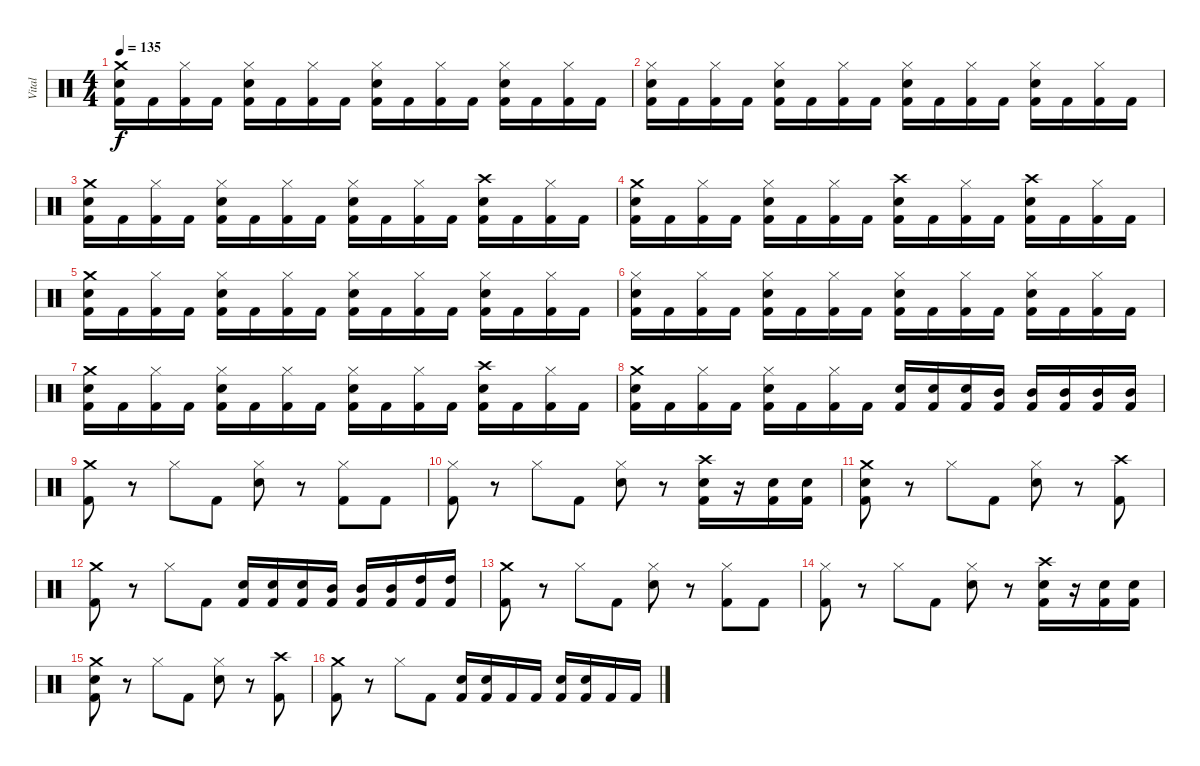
\track ("Vital" "Vital") {instrument percussion}
\staff {score}
\articulation defaults
\ts (4 4)
\tempo 135
\clef neutral
\ks c
("Crash medium (hit)" "Snare (hit) 2" "Kick (hit) 2").16{dy f} "Kick (hit) 2".16 ("Hi-Hat (closed)" "Kick (hit) 2").16 "Kick (hit) 2".16 ("Hi-Hat (closed)" "Snare (hit) 2" "Kick (hit) 2").16 "Kick (hit) 2".16 ("Hi-Hat (closed)" "Kick (hit) 2").16 "Kick (hit) 2".16 ("Hi-Hat (closed)" "Snare (hit) 2" "Kick (hit) 2").16 "Kick (hit) 2".16 ("Hi-Hat (closed)" "Kick (hit) 2").16 "Kick (hit) 2".16 ("Hi-Hat (closed)" "Snare (hit) 2" "Kick (hit) 2").16 "Kick (hit) 2".16 ("Hi-Hat (closed)" "Kick (hit) 2").16 "Kick (hit) 2".16 |
("Hi-Hat (closed)" "Snare (hit) 2" "Kick (hit) 2").16 "Kick (hit) 2".16 ("Hi-Hat (closed)" "Kick (hit) 2").16 "Kick (hit) 2".16 ("Hi-Hat (closed)" "Snare (hit) 2" "Kick (hit) 2").16 "Kick (hit) 2".16 ("Hi-Hat (closed)" "Kick (hit) 2").16 "Kick (hit) 2".16 ("Hi-Hat (closed)" "Snare (hit) 2" "Kick (hit) 2").16 "Kick (hit) 2".16 ("Hi-Hat (closed)" "Kick (hit) 2").16 "Kick (hit) 2".16 ("Hi-Hat (closed)" "Snare (hit) 2" "Kick (hit) 2").16 "Kick (hit) 2".16 ("Hi-Hat (closed)" "Kick (hit) 2").16 "Kick (hit) 2".16 |
("Crash medium (hit)" "Snare (hit) 2" "Kick (hit) 2").16 "Kick (hit) 2".16 ("Hi-Hat (closed)" "Kick (hit) 2").16 "Kick (hit) 2".16 ("Hi-Hat (closed)" "Snare (hit) 2" "Kick (hit) 2").16 "Kick (hit) 2".16 ("Hi-Hat (closed)" "Kick (hit) 2").16 "Kick (hit) 2".16 ("Hi-Hat (closed)" "Snare (hit) 2" "Kick (hit) 2").16 "Kick (hit) 2".16 ("Hi-Hat (closed)" "Kick (hit) 2").16 "Kick (hit) 2".16 ("Crash high (hit)" "Snare (hit) 2" "Kick (hit) 2").16 "Kick (hit) 2".16 ("Hi-Hat (closed)" "Kick (hit) 2").16 "Kick (hit) 2".16 |
("Crash medium (hit)" "Snare (hit) 2" "Kick (hit) 2").16 "Kick (hit) 2".16 ("Hi-Hat (closed)" "Kick (hit) 2").16 "Kick (hit) 2".16 ("Hi-Hat (closed)" "Snare (hit) 2" "Kick (hit) 2").16 "Kick (hit) 2".16 ("Hi-Hat (closed)" "Kick (hit) 2").16 "Kick (hit) 2".16 ("Crash high (hit)" "Snare (hit) 2" "Kick (hit) 2").16 "Kick (hit) 2".16 ("Hi-Hat (closed)" "Kick (hit) 2").16 "Kick (hit) 2".16 ("Crash high (hit)" "Snare (hit) 2" "Kick (hit) 2").16 "Kick (hit) 2".16 ("Hi-Hat (closed)" "Kick (hit) 2").16 "Kick (hit) 2".16 |
("Crash medium (hit)" "Snare (hit) 2" "Kick (hit) 2").16 "Kick (hit) 2".16 ("Hi-Hat (closed)" "Kick (hit) 2").16 "Kick (hit) 2".16 ("Hi-Hat (closed)" "Snare (hit) 2" "Kick (hit) 2").16 "Kick (hit) 2".16 ("Hi-Hat (closed)" "Kick (hit) 2").16 "Kick (hit) 2".16 ("Hi-Hat (closed)" "Snare (hit) 2" "Kick (hit) 2").16 "Kick (hit) 2".16 ("Hi-Hat (closed)" "Kick (hit) 2").16 "Kick (hit) 2".16 ("Hi-Hat (closed)" "Snare (hit) 2" "Kick (hit) 2").16 "Kick (hit) 2".16 ("Hi-Hat (closed)" "Kick (hit) 2").16 "Kick (hit) 2".16 |
("Hi-Hat (closed)" "Snare (hit) 2" "Kick (hit) 2").16 "Kick (hit) 2".16 ("Hi-Hat (closed)" "Kick (hit) 2").16 "Kick (hit) 2".16 ("Hi-Hat (closed)" "Snare (hit) 2" "Kick (hit) 2").16 "Kick (hit) 2".16 ("Hi-Hat (closed)" "Kick (hit) 2").16 "Kick (hit) 2".16 ("Hi-Hat (closed)" "Snare (hit) 2" "Kick (hit) 2").16 "Kick (hit) 2".16 ("Hi-Hat (closed)" "Kick (hit) 2").16 "Kick (hit) 2".16 ("Hi-Hat (closed)" "Snare (hit) 2" "Kick (hit) 2").16 "Kick (hit) 2".16 ("Hi-Hat (closed)" "Kick (hit) 2").16 "Kick (hit) 2".16 |
("Crash medium (hit)" "Snare (hit) 2" "Kick (hit) 2").16 "Kick (hit) 2".16 ("Hi-Hat (closed)" "Kick (hit) 2").16 "Kick (hit) 2".16 ("Hi-Hat (closed)" "Snare (hit) 2" "Kick (hit) 2").16 "Kick (hit) 2".16 ("Hi-Hat (closed)" "Kick (hit) 2").16 "Kick (hit) 2".16 ("Hi-Hat (closed)" "Snare (hit) 2" "Kick (hit) 2").16 "Kick (hit) 2".16 ("Hi-Hat (closed)" "Kick (hit) 2").16 "Kick (hit) 2".16 ("Crash high (hit)" "Snare (hit) 2" "Kick (hit) 2").16 "Kick (hit) 2".16 ("Hi-Hat (closed)" "Kick (hit) 2").16 "Kick (hit) 2".16 |
("Crash medium (hit)" "Snare (hit) 2" "Kick (hit) 2").16 "Kick (hit) 2".16 ("Hi-Hat (closed)" "Kick (hit) 2").16 "Kick (hit) 2".16 ("Hi-Hat (closed)" "Snare (hit) 2" "Kick (hit) 2").16 "Kick (hit) 2".16 ("Hi-Hat (closed)" "Kick (hit) 2").16 "Kick (hit) 2".16 ("Snare (hit) 2" "Kick (hit) 2").16 ("Snare (hit) 2" "Kick (hit) 2").16 ("Snare (hit) 2" "Kick (hit) 2").16 ("Mid Tom (hit)" "Kick (hit) 2").16 ("Mid Tom (hit)" "Kick (hit) 2").16 ("Mid Tom (hit)" "Kick (hit) 2").16 ("Mid Tom (hit)" "Kick (hit) 2").16 ("Mid Tom (hit)" "Kick (hit) 2").16 |
("Crash medium (hit)" "Kick (hit) 2").8 r.8 "Hi-Hat (closed)".8 "Kick (hit) 2".8 ("Hi-Hat (closed)" "Snare (hit) 2").8 r.8 ("Hi-Hat (closed)" "Kick (hit) 2").8 "Kick (hit) 2".8 |
("Hi-Hat (closed)" "Kick (hit) 2").8 r.8 "Hi-Hat (closed)".8 "Kick (hit) 2".8 ("Hi-Hat (closed)" "Snare (hit) 2").8 r.8 ("Crash high (hit)" "Snare (hit) 2" "Kick (hit) 2").16 r.16 ("Snare (hit) 2" "Kick (hit) 2").16 ("Snare (hit) 2" "Kick (hit) 2").16 |
("Crash medium (hit)" "Snare (hit) 2" "Kick (hit) 2").8 r.8 "Hi-Hat (closed)".8 "Kick (hit) 2".8 ("Hi-Hat (closed)" "Snare (hit) 2").8 r.8 ("Crash high (hit)" "Kick (hit) 2").8 |
("Crash medium (hit)" "Kick (hit) 2").8 r.8 "Hi-Hat (closed)".8 "Kick (hit) 2".8 ("Snare (hit) 2" "Kick (hit) 2").16 ("Snare (hit) 2" "Kick (hit) 2").16 ("Snare (hit) 2" "Kick (hit) 2").16 ("Mid Tom (hit)" "Kick (hit) 2").16 ("Mid Tom (hit)" "Kick (hit) 2").16 ("Mid Tom (hit)" "Kick (hit) 2").16 ("High Tom (hit)" "Kick (hit) 2").16 ("High Tom (hit)" "Kick (hit) 2").16 |
("Crash medium (hit)" "Kick (hit) 2").8 r.8 "Hi-Hat (closed)".8 "Kick (hit) 2".8 ("Hi-Hat (closed)" "Snare (hit) 2").8 r.8 ("Hi-Hat (closed)" "Kick (hit) 2").8 "Kick (hit) 2".8 |
("Hi-Hat (closed)" "Kick (hit) 2").8 r.8 "Hi-Hat (closed)".8 "Kick (hit) 2".8 ("Hi-Hat (closed)" "Snare (hit) 2").8 r.8 ("Crash high (hit)" "Snare (hit) 2" "Kick (hit) 2").16 r.16 ("Snare (hit) 2" "Kick (hit) 2").16 ("Snare (hit) 2" "Kick (hit) 2").16 |
("Crash medium (hit)" "Snare (hit) 2" "Kick (hit) 2").8 r.8 "Hi-Hat (closed)".8 "Kick (hit) 2".8 ("Hi-Hat (closed)" "Snare (hit) 2").8 r.8 ("Crash high (hit)" "Kick (hit) 2").8 |
("Crash medium (hit)" "Kick (hit) 2").8 r.8 "Hi-Hat (closed)".8 "Kick (hit) 2".8 ("Snare (hit) 2" "Kick (hit) 2").16 ("Snare (hit) 2" "Kick (hit) 2").16 "Kick (hit) 2".16 "Kick (hit) 2".16 ("Snare (hit) 2" "Kick (hit) 2").16 ("Snare (hit) 2" "Kick (hit) 2").16 "Kick (hit) 2".16 "Kick (hit) 2".16
